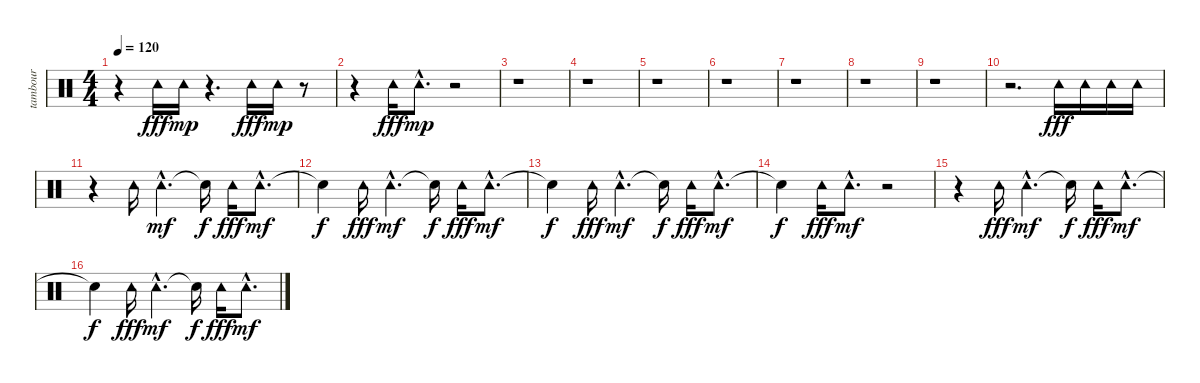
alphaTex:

\track ("tambour" "tambour") {instrument percussion}
\staff {score}
\articulation defaults
\ts (4 4)
\tempo 120
\clef neutral
\ks c
r.4{dy mp} "Tambourine (hit)".16{dy fff} "Tambourine (hit)".16{dy mp} r.4{d} "Tambourine (hit)".16{dy fff} "Tambourine (hit)".16{dy mp} r.8 |
r.4 "Tambourine (hit)".16{dy fff} "Tambourine (hit)"{hac}.8{d dy mp} r.2 |
r.1 |
r.1 |
r.1 |
r.1 |
r.1 |
r.1 |
r.1 |
r.2{d} "Tambourine (hit)".16{dy fff} "Tambourine (hit)".16 "Tambourine (hit)".16 "Tambourine (hit)".16 |
r.4 "Tambourine (hit)".16 "Tambourine (hit)"{hac}.4{d dy mf} "Snare (hit)"{t}.16{dy f} "Tambourine (hit)".16{dy fff} "Tambourine (hit)"{hac}.8{d dy mf} |
"Snare (hit)"{t}.4{dy f} "Tambourine (hit)".16{dy fff} "Tambourine (hit)"{hac}.4{d dy mf} "Snare (hit)"{t}.16{dy f} "Tambourine (hit)".16{dy fff} "Tambourine (hit)"{hac}.8{d dy mf} |
"Snare (hit)"{t}.4{dy f} "Tambourine (hit)".16{dy fff} "Tambourine (hit)"{hac}.4{d dy mf} "Snare (hit)"{t}.16{dy f} "Tambourine (hit)".16{dy fff} "Tambourine (hit)"{hac}.8{d dy mf} |
"Snare (hit)"{t}.4{dy f} "Tambourine (hit)".16{dy fff} "Tambourine (hit)"{hac}.8{d dy mf} r.2 |
r.4 "Tambourine (hit)".16{dy fff} "Tambourine (hit)"{hac}.4{d dy mf} "Snare (hit)"{t}.16{dy f} "Tambourine (hit)".16{dy fff} "Tambourine (hit)"{hac}.8{d dy mf} |
"Snare (hit)"{t}.4{dy f} "Tambourine (hit)".16{dy fff} "Tambourine (hit)"{hac}.4{d dy mf} "Snare (hit)"{t}.16{dy f} "Tambourine (hit)".16{dy fff} "Tambourine (hit)"{hac}.8{d dy mf}
